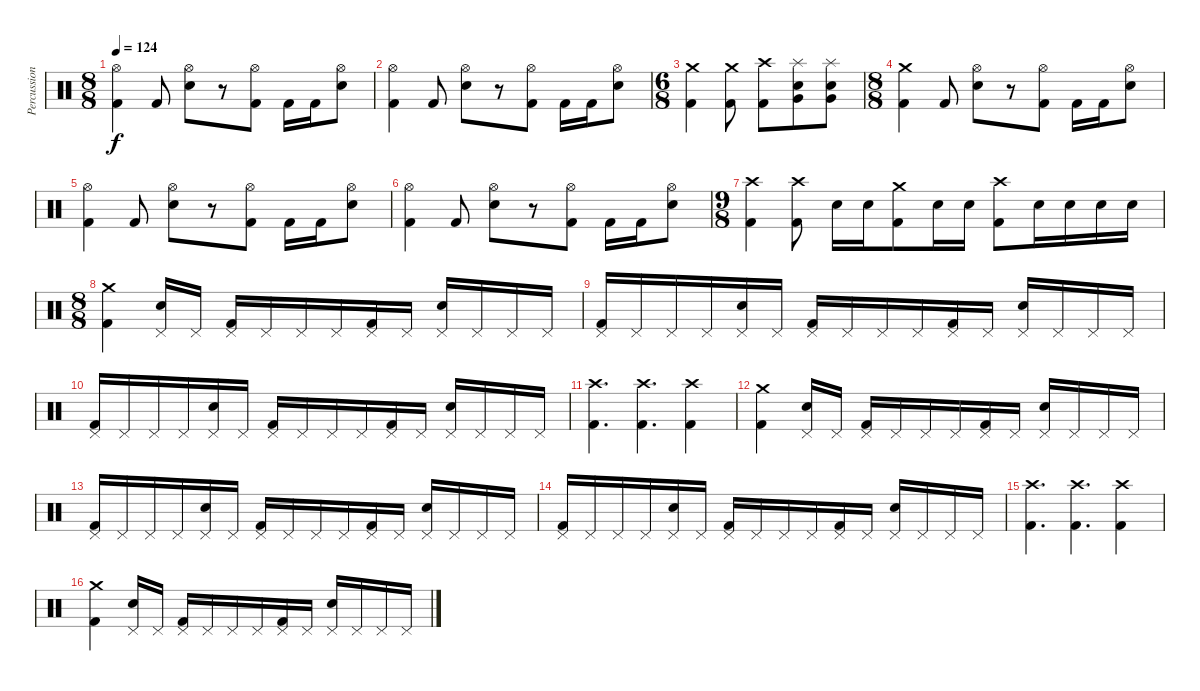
\track ("Percussion" "Percussion") {instrument percussion}
\staff {score}
\articulation defaults
\ts (8 8)
\tempo 124
\clef neutral
\ks c
("Hi-Hat (open)" "Kick (hit) 2").4{dy f} "Kick (hit) 2".8 ("Hi-Hat (open)" "Electric Snare (hit)").8 r.8 ("Hi-Hat (open)" "Kick (hit) 2").8 "Kick (hit) 2".16 "Kick (hit) 2".16 ("Hi-Hat (open)" "Electric Snare (hit)").8 |
("Hi-Hat (open)" "Kick (hit) 2").4 "Kick (hit) 2".8 ("Hi-Hat (open)" "Electric Snare (hit)").8 r.8 ("Hi-Hat (open)" "Kick (hit) 2").8 "Kick (hit) 2".16 "Kick (hit) 2".16 ("Hi-Hat (open)" "Electric Snare (hit)").8 |
\ts (6 8)
("Kick (hit) 2" "Crash medium (hit)").4 ("Crash medium (hit)" "Kick (hit) 2").8 ("Crash high (hit)" "Kick (hit) 2").8 ("Splash (hit)" "Very Low Tom (hit)" "Electric Snare (hit)").8 ("Splash (hit)" "Very Low Tom (hit)" "Electric Snare (hit)").8 |
\ts (8 8)
("Crash medium (hit)" "Kick (hit) 2").4 "Kick (hit) 2".8 ("Hi-Hat (open)" "Electric Snare (hit)").8 r.8 ("Hi-Hat (open)" "Kick (hit) 2").8 "Kick (hit) 2".16 "Kick (hit) 2".16 ("Hi-Hat (open)" "Electric Snare (hit)").8 |
("Hi-Hat (open)" "Kick (hit) 2").4 "Kick (hit) 2".8 ("Hi-Hat (open)" "Electric Snare (hit)").8 r.8 ("Hi-Hat (open)" "Kick (hit) 2").8 "Kick (hit) 2".16 "Kick (hit) 2".16 ("Hi-Hat (open)" "Electric Snare (hit)").8 |
("Hi-Hat (open)" "Kick (hit) 2").4 "Kick (hit) 2".8 ("Hi-Hat (open)" "Electric Snare (hit)").8 r.8 ("Hi-Hat (open)" "Kick (hit) 2").8 "Kick (hit) 2".16 "Kick (hit) 2".16 ("Hi-Hat (open)" "Electric Snare (hit)").8 |
\ts (9 8)
("Crash high (hit)" "Kick (hit) 2").4 ("Crash high (hit)" "Kick (hit) 2").8 "Electric Snare (hit)".16 "Electric Snare (hit)".16 ("Crash medium (hit)" "Kick (hit) 2").8 "Electric Snare (hit)".16 "Electric Snare (hit)".16 ("Crash high (hit)" "Kick (hit) 2").8 "Electric Snare (hit)".16 "Electric Snare (hit)".16 "Electric Snare (hit)".16 "Electric Snare (hit)".16 |
\ts (8 8)
("Kick (hit) 2" "Crash medium (hit)").4 ("Electric Snare (hit)" "Pedal Hi-Hat (hit)").16 "Pedal Hi-Hat (hit)".16 ("Kick (hit) 2" "Pedal Hi-Hat (hit)").16 "Pedal Hi-Hat (hit)".16 "Pedal Hi-Hat (hit)".16 "Pedal Hi-Hat (hit)".16 ("Kick (hit) 2" "Pedal Hi-Hat (hit)").16 "Pedal Hi-Hat (hit)".16 ("Electric Snare (hit)" "Pedal Hi-Hat (hit)").16 "Pedal Hi-Hat (hit)".16 "Pedal Hi-Hat (hit)".16 "Pedal Hi-Hat (hit)".16 |
("Kick (hit) 2" "Pedal Hi-Hat (hit)").16 "Pedal Hi-Hat (hit)".16 "Pedal Hi-Hat (hit)".16 "Pedal Hi-Hat (hit)".16 ("Electric Snare (hit)" "Pedal Hi-Hat (hit)").16 "Pedal Hi-Hat (hit)".16 ("Kick (hit) 2" "Pedal Hi-Hat (hit)").16 "Pedal Hi-Hat (hit)".16 "Pedal Hi-Hat (hit)".16 "Pedal Hi-Hat (hit)".16 ("Kick (hit) 2" "Pedal Hi-Hat (hit)").16 "Pedal Hi-Hat (hit)".16 ("Electric Snare (hit)" "Pedal Hi-Hat (hit)").16 "Pedal Hi-Hat (hit)".16 "Pedal Hi-Hat (hit)".16 "Pedal Hi-Hat (hit)".16 |
("Kick (hit) 2" "Pedal Hi-Hat (hit)").16 "Pedal Hi-Hat (hit)".16 "Pedal Hi-Hat (hit)".16 "Pedal Hi-Hat (hit)".16 ("Electric Snare (hit)" "Pedal Hi-Hat (hit)").16 "Pedal Hi-Hat (hit)".16 ("Kick (hit) 2" "Pedal Hi-Hat (hit)").16 "Pedal Hi-Hat (hit)".16 "Pedal Hi-Hat (hit)".16 "Pedal Hi-Hat (hit)".16 ("Kick (hit) 2" "Pedal Hi-Hat (hit)").16 "Pedal Hi-Hat (hit)".16 ("Electric Snare (hit)" "Pedal Hi-Hat (hit)").16 "Pedal Hi-Hat (hit)".16 "Pedal Hi-Hat (hit)".16 "Pedal Hi-Hat (hit)".16 |
("Crash high (hit)" "Kick (hit) 2").4{d} ("Crash high (hit)" "Kick (hit) 2").4{d} ("Crash high (hit)" "Kick (hit) 2").4 |
("Kick (hit) 2" "Crash medium (hit)").4 ("Electric Snare (hit)" "Pedal Hi-Hat (hit)").16 "Pedal Hi-Hat (hit)".16 ("Kick (hit) 2" "Pedal Hi-Hat (hit)").16 "Pedal Hi-Hat (hit)".16 "Pedal Hi-Hat (hit)".16 "Pedal Hi-Hat (hit)".16 ("Kick (hit) 2" "Pedal Hi-Hat (hit)").16 "Pedal Hi-Hat (hit)".16 ("Electric Snare (hit)" "Pedal Hi-Hat (hit)").16 "Pedal Hi-Hat (hit)".16 "Pedal Hi-Hat (hit)".16 "Pedal Hi-Hat (hit)".16 |
("Kick (hit) 2" "Pedal Hi-Hat (hit)").16 "Pedal Hi-Hat (hit)".16 "Pedal Hi-Hat (hit)".16 "Pedal Hi-Hat (hit)".16 ("Electric Snare (hit)" "Pedal Hi-Hat (hit)").16 "Pedal Hi-Hat (hit)".16 ("Kick (hit) 2" "Pedal Hi-Hat (hit)").16 "Pedal Hi-Hat (hit)".16 "Pedal Hi-Hat (hit)".16 "Pedal Hi-Hat (hit)".16 ("Kick (hit) 2" "Pedal Hi-Hat (hit)").16 "Pedal Hi-Hat (hit)".16 ("Electric Snare (hit)" "Pedal Hi-Hat (hit)").16 "Pedal Hi-Hat (hit)".16 "Pedal Hi-Hat (hit)".16 "Pedal Hi-Hat (hit)".16 |
("Kick (hit) 2" "Pedal Hi-Hat (hit)").16 "Pedal Hi-Hat (hit)".16 "Pedal Hi-Hat (hit)".16 "Pedal Hi-Hat (hit)".16 ("Electric Snare (hit)" "Pedal Hi-Hat (hit)").16 "Pedal Hi-Hat (hit)".16 ("Kick (hit) 2" "Pedal Hi-Hat (hit)").16 "Pedal Hi-Hat (hit)".16 "Pedal Hi-Hat (hit)".16 "Pedal Hi-Hat (hit)".16 ("Kick (hit) 2" "Pedal Hi-Hat (hit)").16 "Pedal Hi-Hat (hit)".16 ("Electric Snare (hit)" "Pedal Hi-Hat (hit)").16 "Pedal Hi-Hat (hit)".16 "Pedal Hi-Hat (hit)".16 "Pedal Hi-Hat (hit)".16 |
("Crash high (hit)" "Kick (hit) 2").4{d} ("Crash high (hit)" "Kick (hit) 2").4{d} ("Crash high (hit)" "Kick (hit) 2").4 |
("Kick (hit) 2" "Crash medium (hit)").4 ("Electric Snare (hit)" "Pedal Hi-Hat (hit)").16 "Pedal Hi-Hat (hit)".16 ("Kick (hit) 2" "Pedal Hi-Hat (hit)").16 "Pedal Hi-Hat (hit)".16 "Pedal Hi-Hat (hit)".16 "Pedal Hi-Hat (hit)".16 ("Kick (hit) 2" "Pedal Hi-Hat (hit)").16 "Pedal Hi-Hat (hit)".16 ("Electric Snare (hit)" "Pedal Hi-Hat (hit)").16 "Pedal Hi-Hat (hit)".16 "Pedal Hi-Hat (hit)".16 "Pedal Hi-Hat (hit)".16
